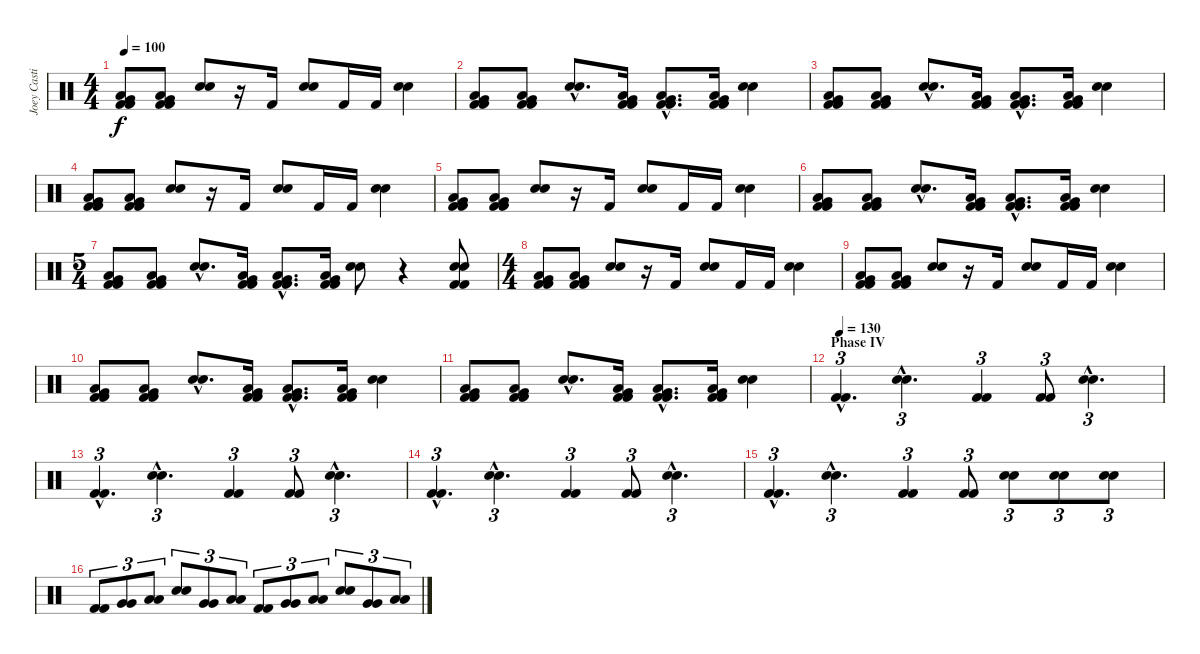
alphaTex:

\track ("Joey Castillo" "Joey Casti") {instrument percussion}
\staff {score}
\articulation defaults
\ts (4 4)
\tempo 100
\clef neutral
\ks c
("Low Floor Tom (hit)" "Very Low Tom (hit)" "Kick (hit) 2" "Kick (hit) 2").8{dy f} ("Low Floor Tom (hit)" "Very Low Tom (hit)" "Kick (hit) 2" "Kick (hit) 2").8 ("Electric Snare (hit)" "Electric Snare (hit)").8 r.16 "Kick (hit) 2".16 ("Electric Snare (hit)" "Electric Snare (hit)").8 "Kick (hit) 2".16 "Kick (hit) 2".16 ("Electric Snare (hit)" "Electric Snare (hit)").4 |
("Low Floor Tom (hit)" "Very Low Tom (hit)" "Kick (hit) 2" "Kick (hit) 2").8 ("Low Floor Tom (hit)" "Very Low Tom (hit)" "Kick (hit) 2" "Kick (hit) 2").8 ("Electric Snare (hit)"{hac} "Electric Snare (hit)"{hac}).8{d} ("Low Floor Tom (hit)" "Very Low Tom (hit)" "Kick (hit) 2" "Kick (hit) 2").16 ("Low Floor Tom (hit)"{hac} "Very Low Tom (hit)"{hac} "Kick (hit) 2"{hac} "Kick (hit) 2"{hac}).8{d} ("Low Floor Tom (hit)" "Very Low Tom (hit)" "Kick (hit) 2" "Kick (hit) 2").16 ("Electric Snare (hit)" "Electric Snare (hit)").4 |
("Low Floor Tom (hit)" "Very Low Tom (hit)" "Kick (hit) 2" "Kick (hit) 2").8 ("Low Floor Tom (hit)" "Very Low Tom (hit)" "Kick (hit) 2" "Kick (hit) 2").8 ("Electric Snare (hit)"{hac} "Electric Snare (hit)"{hac}).8{d} ("Low Floor Tom (hit)" "Very Low Tom (hit)" "Kick (hit) 2" "Kick (hit) 2").16 ("Low Floor Tom (hit)"{hac} "Very Low Tom (hit)"{hac} "Kick (hit) 2"{hac} "Kick (hit) 2"{hac}).8{d} ("Low Floor Tom (hit)" "Very Low Tom (hit)" "Kick (hit) 2" "Kick (hit) 2").16 ("Electric Snare (hit)" "Electric Snare (hit)").4 |
("Low Floor Tom (hit)" "Very Low Tom (hit)" "Kick (hit) 2" "Kick (hit) 2").8 ("Low Floor Tom (hit)" "Very Low Tom (hit)" "Kick (hit) 2" "Kick (hit) 2").8 ("Electric Snare (hit)" "Electric Snare (hit)").8 r.16 "Kick (hit) 2".16 ("Electric Snare (hit)" "Electric Snare (hit)").8 "Kick (hit) 2".16 "Kick (hit) 2".16 ("Electric Snare (hit)" "Electric Snare (hit)").4 |
("Low Floor Tom (hit)" "Very Low Tom (hit)" "Kick (hit) 2" "Kick (hit) 2").8 ("Low Floor Tom (hit)" "Very Low Tom (hit)" "Kick (hit) 2" "Kick (hit) 2").8 ("Electric Snare (hit)" "Electric Snare (hit)").8 r.16 "Kick (hit) 2".16 ("Electric Snare (hit)" "Electric Snare (hit)").8 "Kick (hit) 2".16 "Kick (hit) 2".16 ("Electric Snare (hit)" "Electric Snare (hit)").4 |
("Low Floor Tom (hit)" "Very Low Tom (hit)" "Kick (hit) 2" "Kick (hit) 2").8 ("Low Floor Tom (hit)" "Very Low Tom (hit)" "Kick (hit) 2" "Kick (hit) 2").8 ("Electric Snare (hit)"{hac} "Electric Snare (hit)"{hac}).8{d} ("Low Floor Tom (hit)" "Very Low Tom (hit)" "Kick (hit) 2" "Kick (hit) 2").16 ("Low Floor Tom (hit)"{hac} "Very Low Tom (hit)"{hac} "Kick (hit) 2"{hac} "Kick (hit) 2"{hac}).8{d} ("Low Floor Tom (hit)" "Very Low Tom (hit)" "Kick (hit) 2" "Kick (hit) 2").16 ("Electric Snare (hit)" "Electric Snare (hit)").4 |
\ts (5 4)
("Low Floor Tom (hit)" "Very Low Tom (hit)" "Kick (hit) 2" "Kick (hit) 2").8 ("Low Floor Tom (hit)" "Very Low Tom (hit)" "Kick (hit) 2" "Kick (hit) 2").8 ("Electric Snare (hit)"{hac} "Electric Snare (hit)"{hac}).8{d} ("Low Floor Tom (hit)" "Very Low Tom (hit)" "Kick (hit) 2" "Kick (hit) 2").16 ("Low Floor Tom (hit)"{hac} "Very Low Tom (hit)"{hac} "Kick (hit) 2"{hac} "Kick (hit) 2"{hac}).8{d} ("Low Floor Tom (hit)" "Very Low Tom (hit)" "Kick (hit) 2" "Kick (hit) 2").16 ("Electric Snare (hit)" "Electric Snare (hit)").8 r.4 ("Electric Snare (hit)" "Electric Snare (hit)" "Kick (hit) 2" "Kick (hit) 2").8 |
\ts (4 4)
("Low Floor Tom (hit)" "Very Low Tom (hit)" "Kick (hit) 2" "Kick (hit) 2").8 ("Low Floor Tom (hit)" "Very Low Tom (hit)" "Kick (hit) 2" "Kick (hit) 2").8 ("Electric Snare (hit)" "Electric Snare (hit)").8 r.16 "Kick (hit) 2".16 ("Electric Snare (hit)" "Electric Snare (hit)").8 "Kick (hit) 2".16 "Kick (hit) 2".16 ("Electric Snare (hit)" "Electric Snare (hit)").4 |
("Low Floor Tom (hit)" "Very Low Tom (hit)" "Kick (hit) 2" "Kick (hit) 2").8 ("Low Floor Tom (hit)" "Very Low Tom (hit)" "Kick (hit) 2" "Kick (hit) 2").8 ("Electric Snare (hit)" "Electric Snare (hit)").8 r.16 "Kick (hit) 2".16 ("Electric Snare (hit)" "Electric Snare (hit)").8 "Kick (hit) 2".16 "Kick (hit) 2".16 ("Electric Snare (hit)" "Electric Snare (hit)").4 |
("Low Floor Tom (hit)" "Very Low Tom (hit)" "Kick (hit) 2" "Kick (hit) 2").8 ("Low Floor Tom (hit)" "Very Low Tom (hit)" "Kick (hit) 2" "Kick (hit) 2").8 ("Electric Snare (hit)"{hac} "Electric Snare (hit)"{hac}).8{d} ("Low Floor Tom (hit)" "Very Low Tom (hit)" "Kick (hit) 2" "Kick (hit) 2").16 ("Low Floor Tom (hit)"{hac} "Very Low Tom (hit)"{hac} "Kick (hit) 2"{hac} "Kick (hit) 2"{hac}).8{d} ("Low Floor Tom (hit)" "Very Low Tom (hit)" "Kick (hit) 2" "Kick (hit) 2").16 ("Electric Snare (hit)" "Electric Snare (hit)").4 |
("Low Floor Tom (hit)" "Very Low Tom (hit)" "Kick (hit) 2" "Kick (hit) 2").8 ("Low Floor Tom (hit)" "Very Low Tom (hit)" "Kick (hit) 2" "Kick (hit) 2").8 ("Electric Snare (hit)"{hac} "Electric Snare (hit)"{hac}).8{d} ("Low Floor Tom (hit)" "Very Low Tom (hit)" "Kick (hit) 2" "Kick (hit) 2").16 ("Low Floor Tom (hit)"{hac} "Very Low Tom (hit)"{hac} "Kick (hit) 2"{hac} "Kick (hit) 2"{hac}).8{d} ("Low Floor Tom (hit)" "Very Low Tom (hit)" "Kick (hit) 2" "Kick (hit) 2").16 ("Electric Snare (hit)" "Electric Snare (hit)").4 |
\section ("" "Phase IV")
\tempo 130
("Kick (hit) 2"{hac} "Kick (hit) 2"{hac}).4{d tu (3 2)} ("Electric Snare (hit)"{hac} "Electric Snare (hit)"{hac}).4{d tu (3 2)} ("Kick (hit) 2" "Kick (hit) 2").4{tu (3 2)} ("Kick (hit) 2" "Kick (hit) 2").8{tu (3 2)} ("Electric Snare (hit)"{hac} "Electric Snare (hit)"{hac}).4{d tu (3 2)} |
("Kick (hit) 2"{hac} "Kick (hit) 2"{hac}).4{d tu (3 2)} ("Electric Snare (hit)"{hac} "Electric Snare (hit)"{hac}).4{d tu (3 2)} ("Kick (hit) 2" "Kick (hit) 2").4{tu (3 2)} ("Kick (hit) 2" "Kick (hit) 2").8{tu (3 2)} ("Electric Snare (hit)"{hac} "Electric Snare (hit)"{hac}).4{d tu (3 2)} |
("Kick (hit) 2"{hac} "Kick (hit) 2"{hac}).4{d tu (3 2)} ("Electric Snare (hit)"{hac} "Electric Snare (hit)"{hac}).4{d tu (3 2)} ("Kick (hit) 2" "Kick (hit) 2").4{tu (3 2)} ("Kick (hit) 2" "Kick (hit) 2").8{tu (3 2)} ("Electric Snare (hit)"{hac} "Electric Snare (hit)"{hac}).4{d tu (3 2)} |
("Kick (hit) 2"{hac} "Kick (hit) 2"{hac}).4{d tu (3 2)} ("Electric Snare (hit)"{hac} "Electric Snare (hit)"{hac}).4{d tu (3 2)} ("Kick (hit) 2" "Kick (hit) 2").4{tu (3 2)} ("Kick (hit) 2" "Kick (hit) 2").8{tu (3 2)} ("Electric Snare (hit)" "Electric Snare (hit)").8{tu (3 2)} ("Electric Snare (hit)" "Electric Snare (hit)").8{tu (3 2)} ("Electric Snare (hit)" "Electric Snare (hit)").8{tu (3 2)} |
("Kick (hit) 2" "Kick (hit) 2").8{tu (3 2)} ("Very Low Tom (hit)" "Very Low Tom (hit)").8{tu (3 2)} ("Low Floor Tom (hit)" "Low Floor Tom (hit)").8{tu (3 2)} ("Electric Snare (hit)" "Electric Snare (hit)").8{tu (3 2)} ("Very Low Tom (hit)" "Very Low Tom (hit)").8{tu (3 2)} ("Low Floor Tom (hit)" "Low Floor Tom (hit)").8{tu (3 2)} ("Kick (hit) 2" "Kick (hit) 2").8{tu (3 2)} ("Very Low Tom (hit)" "Very Low Tom (hit)").8{tu (3 2)} ("Low Floor Tom (hit)" "Low Floor Tom (hit)").8{tu (3 2)} ("Electric Snare (hit)" "Electric Snare (hit)").8{tu (3 2)} ("Very Low Tom (hit)" "Very Low Tom (hit)").8{tu (3 2)} ("Low Floor Tom (hit)" "Low Floor Tom (hit)").8{tu (3 2)}
